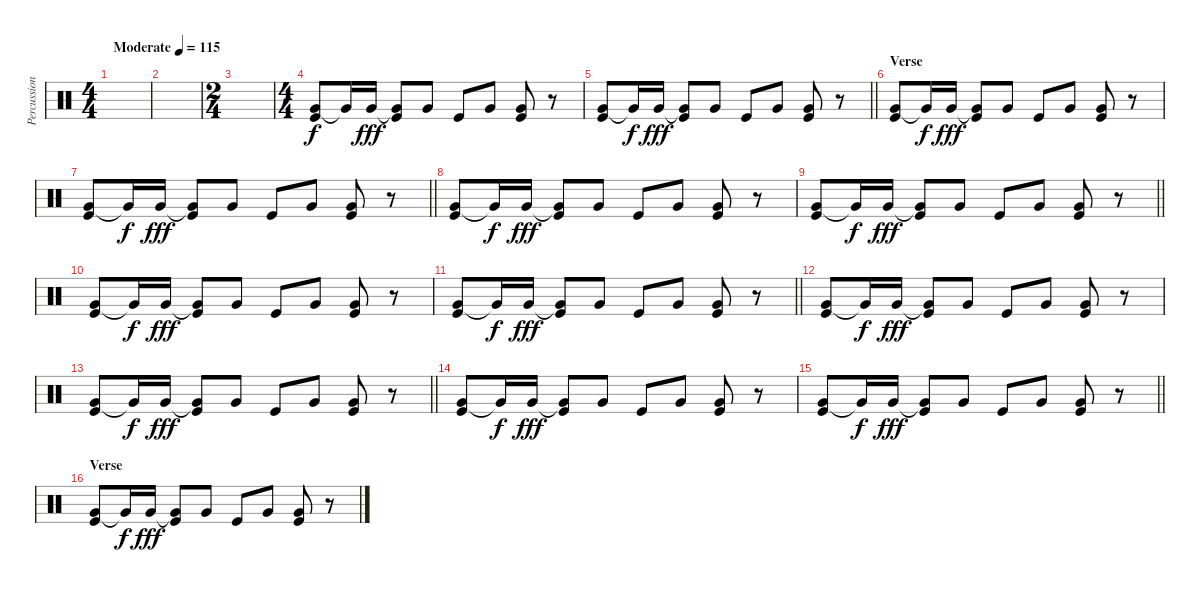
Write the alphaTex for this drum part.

\track ("Percussion" "Percussion") {instrument percussion}
\staff {score}
\articulation defaults
\ts (4 4)
\tempo (115 "Moderate")
\clef neutral
\ks c
|
|
\ts (2 4)
|
\ts (4 4)
("Very Low Tom (hit)" "Kick (hit)").8 "Very Low Tom (hit)"{t}.16{dy f} "Very Low Tom (hit)".16{dy fff} ("Very Low Tom (hit)"{t} "Kick (hit)").8 "Very Low Tom (hit)".8 "Kick (hit)".8 "Very Low Tom (hit)".8 ("Very Low Tom (hit)" "Kick (hit)").8 r.8 |
\barLineRight lightlight
("Very Low Tom (hit)" "Kick (hit)").8 "Very Low Tom (hit)"{t}.16{dy f} "Very Low Tom (hit)".16{dy fff} ("Very Low Tom (hit)"{t} "Kick (hit)").8 "Very Low Tom (hit)".8 "Kick (hit)".8 "Very Low Tom (hit)".8 ("Very Low Tom (hit)" "Kick (hit)").8 r.8 |
\section ("" "Verse")
("Very Low Tom (hit)" "Kick (hit)").8 "Very Low Tom (hit)"{t}.16{dy f} "Very Low Tom (hit)".16{dy fff} ("Very Low Tom (hit)"{t} "Kick (hit)").8 "Very Low Tom (hit)".8 "Kick (hit)".8 "Very Low Tom (hit)".8 ("Very Low Tom (hit)" "Kick (hit)").8 r.8 |
\barLineRight lightlight
("Very Low Tom (hit)" "Kick (hit)").8 "Very Low Tom (hit)"{t}.16{dy f} "Very Low Tom (hit)".16{dy fff} ("Very Low Tom (hit)"{t} "Kick (hit)").8 "Very Low Tom (hit)".8 "Kick (hit)".8 "Very Low Tom (hit)".8 ("Very Low Tom (hit)" "Kick (hit)").8 r.8 |
("Very Low Tom (hit)" "Kick (hit)").8 "Very Low Tom (hit)"{t}.16{dy f} "Very Low Tom (hit)".16{dy fff} ("Very Low Tom (hit)"{t} "Kick (hit)").8 "Very Low Tom (hit)".8 "Kick (hit)".8 "Very Low Tom (hit)".8 ("Very Low Tom (hit)" "Kick (hit)").8 r.8 |
\barLineRight lightlight
("Very Low Tom (hit)" "Kick (hit)").8 "Very Low Tom (hit)"{t}.16{dy f} "Very Low Tom (hit)".16{dy fff} ("Very Low Tom (hit)"{t} "Kick (hit)").8 "Very Low Tom (hit)".8 "Kick (hit)".8 "Very Low Tom (hit)".8 ("Very Low Tom (hit)" "Kick (hit)").8 r.8 |
("Very Low Tom (hit)" "Kick (hit)").8 "Very Low Tom (hit)"{t}.16{dy f} "Very Low Tom (hit)".16{dy fff} ("Very Low Tom (hit)"{t} "Kick (hit)").8 "Very Low Tom (hit)".8 "Kick (hit)".8 "Very Low Tom (hit)".8 ("Very Low Tom (hit)" "Kick (hit)").8 r.8 |
\barLineRight lightlight
("Very Low Tom (hit)" "Kick (hit)").8 "Very Low Tom (hit)"{t}.16{dy f} "Very Low Tom (hit)".16{dy fff} ("Very Low Tom (hit)"{t} "Kick (hit)").8 "Very Low Tom (hit)".8 "Kick (hit)".8 "Very Low Tom (hit)".8 ("Very Low Tom (hit)" "Kick (hit)").8 r.8 |
("Very Low Tom (hit)" "Kick (hit)").8 "Very Low Tom (hit)"{t}.16{dy f} "Very Low Tom (hit)".16{dy fff} ("Very Low Tom (hit)"{t} "Kick (hit)").8 "Very Low Tom (hit)".8 "Kick (hit)".8 "Very Low Tom (hit)".8 ("Very Low Tom (hit)" "Kick (hit)").8 r.8 |
\barLineRight lightlight
("Very Low Tom (hit)" "Kick (hit)").8 "Very Low Tom (hit)"{t}.16{dy f} "Very Low Tom (hit)".16{dy fff} ("Very Low Tom (hit)"{t} "Kick (hit)").8 "Very Low Tom (hit)".8 "Kick (hit)".8 "Very Low Tom (hit)".8 ("Very Low Tom (hit)" "Kick (hit)").8 r.8 |
("Very Low Tom (hit)" "Kick (hit)").8 "Very Low Tom (hit)"{t}.16{dy f} "Very Low Tom (hit)".16{dy fff} ("Very Low Tom (hit)"{t} "Kick (hit)").8 "Very Low Tom (hit)".8 "Kick (hit)".8 "Very Low Tom (hit)".8 ("Very Low Tom (hit)" "Kick (hit)").8 r.8 |
\barLineRight lightlight
("Very Low Tom (hit)" "Kick (hit)").8 "Very Low Tom (hit)"{t}.16{dy f} "Very Low Tom (hit)".16{dy fff} ("Very Low Tom (hit)"{t} "Kick (hit)").8 "Very Low Tom (hit)".8 "Kick (hit)".8 "Very Low Tom (hit)".8 ("Very Low Tom (hit)" "Kick (hit)").8 r.8 |
\section ("" "Verse")
("Very Low Tom (hit)" "Kick (hit)").8 "Very Low Tom (hit)"{t}.16{dy f} "Very Low Tom (hit)".16{dy fff} ("Very Low Tom (hit)"{t} "Kick (hit)").8 "Very Low Tom (hit)".8 "Kick (hit)".8 "Very Low Tom (hit)".8 ("Very Low Tom (hit)" "Kick (hit)").8 r.8
